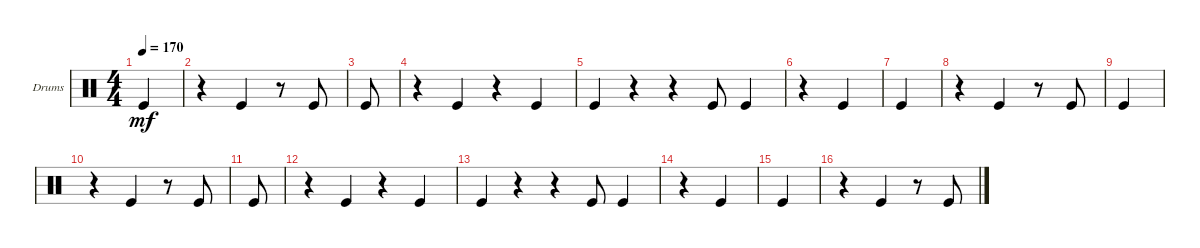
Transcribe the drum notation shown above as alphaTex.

\defaultSystemsLayout 4
\bracketExtendMode groupsimilarinstruments
\firstSystemTrackNameOrientation horizontal
\otherSystemsTrackNameOrientation horizontal
\track ("Drumkit" "Drums") {instrument percussion}
\staff {score}
\articulation defaults
\ts (4 4)
\tempo 170
\clef neutral
\ks c "Kick (hit)".4{dy mf}
|
r.4 "Kick (hit)".4 r.8 "Kick (hit)".8 |
"Kick (hit)".8 |
r.4 "Kick (hit)".4 r.4 "Kick (hit)".4 |
"Kick (hit)".4 r.4 r.4 "Kick (hit)".8 "Kick (hit)".4 |
r.4 "Kick (hit)".4 |
"Kick (hit)".4 |
r.4 "Kick (hit)".4 r.8 "Kick (hit)".8 |
"Kick (hit)".4 |
r.4 "Kick (hit)".4 r.8 "Kick (hit)".8 |
"Kick (hit)".8 |
r.4 "Kick (hit)".4 r.4 "Kick (hit)".4 |
"Kick (hit)".4 r.4 r.4 "Kick (hit)".8 "Kick (hit)".4 |
r.4 "Kick (hit)".4 |
"Kick (hit)".4 |
r.4 "Kick (hit)".4 r.8 "Kick (hit)".8
